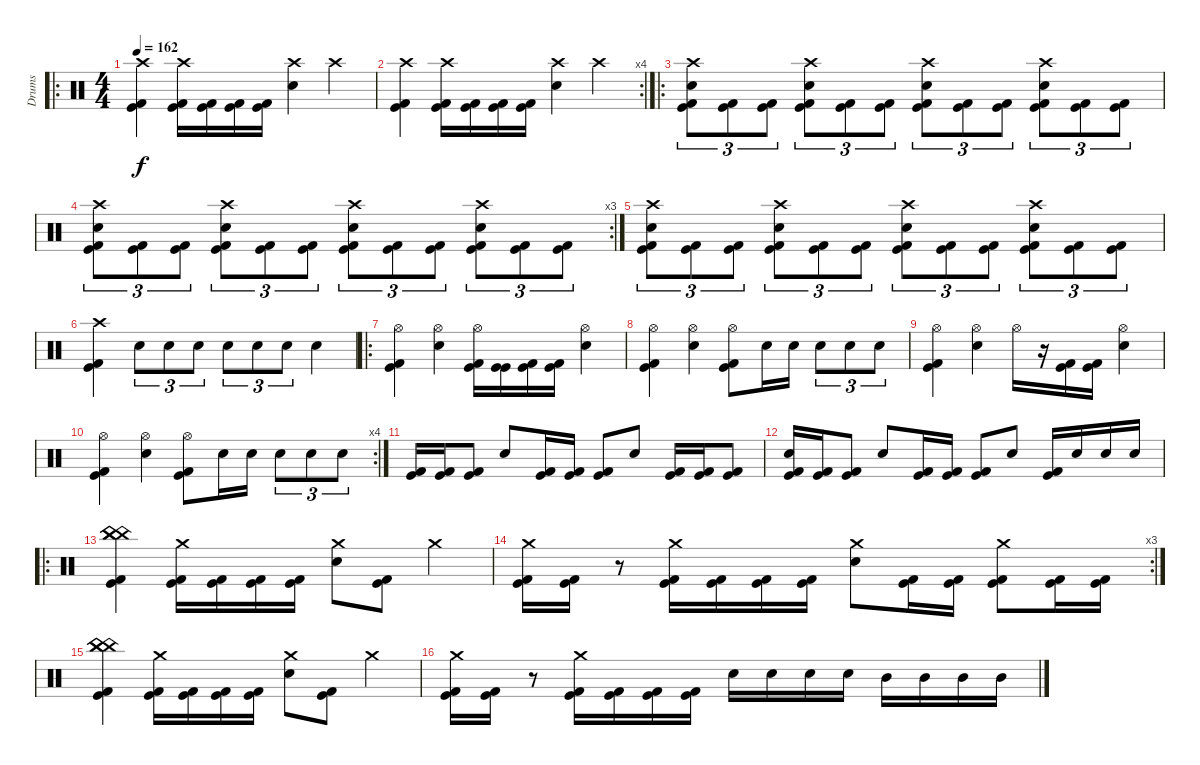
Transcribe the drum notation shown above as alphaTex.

\track ("Drums" "Drums") {instrument percussion}
\staff {score}
\articulation defaults
\ro
\ts (4 4)
\tempo 162
\clef neutral
\ks c
("Crash high (hit)" "Kick (hit)" "Kick (hit) 2").4{dy f} ("Crash high (hit)" "Kick (hit)" "Kick (hit) 2").16 ("Kick (hit)" "Kick (hit) 2").16 ("Kick (hit)" "Kick (hit) 2").16 ("Kick (hit)" "Kick (hit) 2").16 ("Crash high (hit)" "Snare (hit) 2").4 "Crash high (hit)".4 |
\rc 4
("Crash high (hit)" "Kick (hit)" "Kick (hit) 2").4 ("Crash high (hit)" "Kick (hit)" "Kick (hit) 2").16 ("Kick (hit)" "Kick (hit) 2").16 ("Kick (hit)" "Kick (hit) 2").16 ("Kick (hit)" "Kick (hit) 2").16 ("Crash high (hit)" "Snare (hit) 2").4 "Crash high (hit)".4 |
\ro
("Crash high (hit)" "Snare (hit) 2" "Kick (hit)" "Kick (hit) 2").8{tu (3 2)} ("Kick (hit)" "Kick (hit) 2").8{tu (3 2)} ("Kick (hit)" "Kick (hit) 2").8{tu (3 2)} ("Crash high (hit)" "Snare (hit) 2" "Kick (hit)" "Kick (hit) 2").8{tu (3 2)} ("Kick (hit)" "Kick (hit) 2").8{tu (3 2)} ("Kick (hit)" "Kick (hit) 2").8{tu (3 2)} ("Crash high (hit)" "Snare (hit) 2" "Kick (hit)" "Kick (hit) 2").8{tu (3 2)} ("Kick (hit)" "Kick (hit) 2").8{tu (3 2)} ("Kick (hit)" "Kick (hit) 2").8{tu (3 2)} ("Crash high (hit)" "Snare (hit) 2" "Kick (hit)" "Kick (hit) 2").8{tu (3 2)} ("Kick (hit)" "Kick (hit) 2").8{tu (3 2)} ("Kick (hit)" "Kick (hit) 2").8{tu (3 2)} |
\rc 3
("Crash high (hit)" "Snare (hit) 2" "Kick (hit)" "Kick (hit) 2").8{tu (3 2)} ("Kick (hit)" "Kick (hit) 2").8{tu (3 2)} ("Kick (hit)" "Kick (hit) 2").8{tu (3 2)} ("Crash high (hit)" "Snare (hit) 2" "Kick (hit)" "Kick (hit) 2").8{tu (3 2)} ("Kick (hit)" "Kick (hit) 2").8{tu (3 2)} ("Kick (hit)" "Kick (hit) 2").8{tu (3 2)} ("Crash high (hit)" "Snare (hit) 2" "Kick (hit)" "Kick (hit) 2").8{tu (3 2)} ("Kick (hit)" "Kick (hit) 2").8{tu (3 2)} ("Kick (hit)" "Kick (hit) 2").8{tu (3 2)} ("Crash high (hit)" "Snare (hit) 2" "Kick (hit)" "Kick (hit) 2").8{tu (3 2)} ("Kick (hit)" "Kick (hit) 2").8{tu (3 2)} ("Kick (hit)" "Kick (hit) 2").8{tu (3 2)} |
("Crash high (hit)" "Snare (hit) 2" "Kick (hit)" "Kick (hit) 2").8{tu (3 2)} ("Kick (hit)" "Kick (hit) 2").8{tu (3 2)} ("Kick (hit)" "Kick (hit) 2").8{tu (3 2)} ("Crash high (hit)" "Snare (hit) 2" "Kick (hit)" "Kick (hit) 2").8{tu (3 2)} ("Kick (hit)" "Kick (hit) 2").8{tu (3 2)} ("Kick (hit)" "Kick (hit) 2").8{tu (3 2)} ("Crash high (hit)" "Snare (hit) 2" "Kick (hit)" "Kick (hit) 2").8{tu (3 2)} ("Kick (hit)" "Kick (hit) 2").8{tu (3 2)} ("Kick (hit)" "Kick (hit) 2").8{tu (3 2)} ("Crash high (hit)" "Snare (hit) 2" "Kick (hit)" "Kick (hit) 2").8{tu (3 2)} ("Kick (hit)" "Kick (hit) 2").8{tu (3 2)} ("Kick (hit)" "Kick (hit) 2").8{tu (3 2)} |
("Crash high (hit)" "Kick (hit)" "Kick (hit) 2").4 "Snare (hit) 2".8{tu (3 2)} "Snare (hit) 2".8{tu (3 2)} "Snare (hit) 2".8{tu (3 2)} "Snare (hit) 2".8{tu (3 2)} "Snare (hit) 2".8{tu (3 2)} "Snare (hit) 2".8{tu (3 2)} "Snare (hit) 2".4 |
\ro
("Hi-Hat (open)" "Kick (hit)" "Kick (hit) 2").4 ("Hi-Hat (open)" "Snare (hit) 2").4 ("Hi-Hat (open)" "Kick (hit)" "Kick (hit) 2").16 ("Kick (hit)" "Kick (hit)").16 ("Kick (hit)" "Kick (hit) 2").16 ("Kick (hit)" "Kick (hit) 2").16 ("Hi-Hat (open)" "Snare (hit) 2").4 |
("Hi-Hat (open)" "Kick (hit)" "Kick (hit) 2").4 ("Hi-Hat (open)" "Snare (hit) 2").4 ("Hi-Hat (open)" "Kick (hit)" "Kick (hit) 2").8 "Snare (hit) 2".16 "Snare (hit) 2".16 "Snare (hit) 2".8{tu (3 2)} "Snare (hit) 2".8{tu (3 2)} "Snare (hit) 2".8{tu (3 2)} |
("Hi-Hat (open)" "Kick (hit)" "Kick (hit) 2").4 ("Hi-Hat (open)" "Snare (hit) 2").4 "Hi-Hat (open)".16 r.16 ("Kick (hit)" "Kick (hit) 2").16 ("Kick (hit)" "Kick (hit) 2").16 ("Hi-Hat (open)" "Snare (hit) 2").4 |
\rc 4
("Hi-Hat (open)" "Kick (hit)" "Kick (hit) 2").4 ("Hi-Hat (open)" "Snare (hit) 2").4 ("Hi-Hat (open)" "Kick (hit)" "Kick (hit) 2").8 "Snare (hit) 2".16 "Snare (hit) 2".16 "Snare (hit) 2".8{tu (3 2)} "Snare (hit) 2".8{tu (3 2)} "Snare (hit) 2".8{tu (3 2)} |
("Kick (hit)" "Kick (hit) 2").16 ("Kick (hit)" "Kick (hit) 2").16 ("Kick (hit)" "Kick (hit) 2").8 "Snare (hit) 2".8 ("Kick (hit)" "Kick (hit) 2").16 ("Kick (hit)" "Kick (hit) 2").16 ("Kick (hit)" "Kick (hit) 2").8 "Snare (hit) 2".8 ("Kick (hit)" "Kick (hit) 2").16 ("Kick (hit)" "Kick (hit) 2").16 ("Kick (hit)" "Kick (hit) 2").8 |
("Snare (hit) 2" "Kick (hit)" "Kick (hit) 2").16 ("Kick (hit)" "Kick (hit) 2").16 ("Kick (hit)" "Kick (hit) 2").8 "Snare (hit) 2".8 ("Kick (hit)" "Kick (hit) 2").16 ("Kick (hit)" "Kick (hit) 2").16 ("Kick (hit)" "Kick (hit) 2").8 "Snare (hit) 2".8 ("Kick (hit)" "Kick (hit) 2").16 "Snare (hit) 2".16 "Snare (hit) 2".16 "Snare (hit) 2".16 |
\ro
("China (hit)" "China (hit)" "China (hit)" "Kick (hit)" "Kick (hit) 2").4 ("Crash medium (hit)" "Kick (hit)" "Kick (hit) 2").16 ("Kick (hit)" "Kick (hit) 2").16 ("Kick (hit)" "Kick (hit) 2").16 ("Kick (hit)" "Kick (hit) 2").16 ("Crash medium (hit)" "Snare (hit) 2").8 ("Kick (hit)" "Kick (hit) 2").8 "Crash medium (hit)".4 |
\rc 3
("Crash medium (hit)" "Kick (hit)" "Kick (hit) 2").16 ("Kick (hit)" "Kick (hit) 2").16 r.8 ("Crash medium (hit)" "Kick (hit)" "Kick (hit) 2").16 ("Kick (hit)" "Kick (hit) 2").16 ("Kick (hit)" "Kick (hit) 2").16 ("Kick (hit)" "Kick (hit) 2").16 ("Crash medium (hit)" "Snare (hit) 2").8 ("Kick (hit)" "Kick (hit) 2").16 ("Kick (hit)" "Kick (hit) 2").16 ("Crash medium (hit)" "Kick (hit)" "Kick (hit) 2").8 ("Kick (hit)" "Kick (hit) 2").16 ("Kick (hit)" "Kick (hit) 2").16 |
("China (hit)" "China (hit)" "China (hit)" "Kick (hit)" "Kick (hit) 2").4 ("Crash medium (hit)" "Kick (hit)" "Kick (hit) 2").16 ("Kick (hit)" "Kick (hit) 2").16 ("Kick (hit)" "Kick (hit) 2").16 ("Kick (hit)" "Kick (hit) 2").16 ("Crash medium (hit)" "Snare (hit) 2").8 ("Kick (hit)" "Kick (hit) 2").8 "Crash medium (hit)".4 |
("Crash medium (hit)" "Kick (hit)" "Kick (hit) 2").16 ("Kick (hit)" "Kick (hit) 2").16 r.8 ("Crash medium (hit)" "Kick (hit)" "Kick (hit) 2").16 ("Kick (hit)" "Kick (hit) 2").16 ("Kick (hit)" "Kick (hit) 2").16 ("Kick (hit)" "Kick (hit) 2").16 "Snare (hit) 2".16 "Snare (hit) 2".16 "Snare (hit) 2".16 "Snare (hit) 2".16 "Mid Tom (hit)".16 "Mid Tom (hit)".16 "Mid Tom (hit)".16 "Mid Tom (hit)".16
